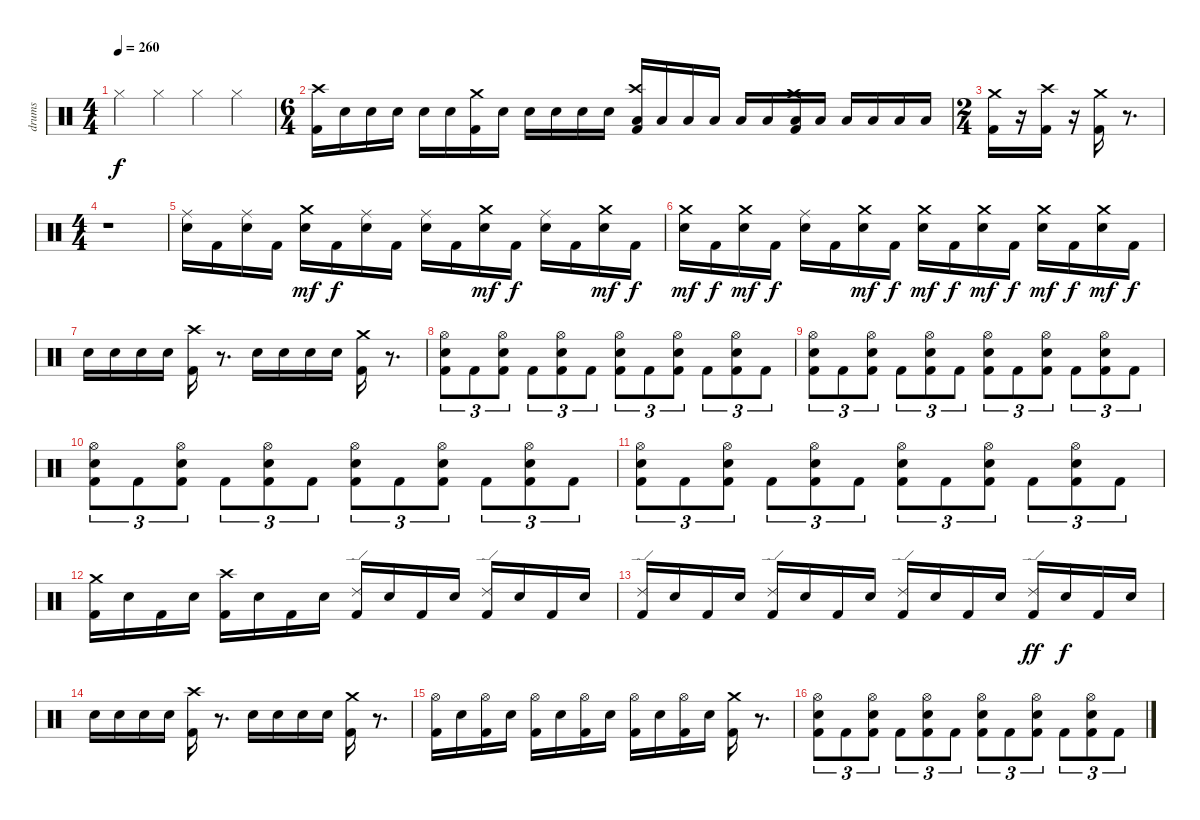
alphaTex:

\track ("drums" "drums") {instrument percussion}
\staff {score}
\articulation defaults
\ts (4 4)
\tempo 260
\clef neutral
\ks c "Hi-Hat (closed)".4{dy f} "Hi-Hat (closed)".4 "Hi-Hat (closed)".4 "Hi-Hat (closed)".4
|
\ts (6 4)
("Kick (hit) 2" "Crash high (hit)").16 "Snare (hit) 2".16 "Snare (hit) 2".16 "Snare (hit) 2".16 "Snare (hit) 2".16 "Snare (hit) 2".16 ("Kick (hit) 2" "Crash medium (hit)").16 "Snare (hit) 2".16 "Snare (hit) 2".16 "Snare (hit) 2".16 "Snare (hit) 2".16 "Snare (hit) 2".16 ("Kick (hit) 2" "Low Tom (hit)" "Crash high (hit)").16 "Low Tom (hit)".16 "Low Tom (hit)".16 "Low Tom (hit)".16 "Low Tom (hit)".16 "Low Tom (hit)".16 ("Kick (hit) 2" "Low Floor Tom (hit)" "Crash medium (hit)").16 "Low Floor Tom (hit)".16 "Low Floor Tom (hit)".16 "Low Floor Tom (hit)".16 "Low Floor Tom (hit)".16 "Low Floor Tom (hit)".16 |
\ts (2 4)
("Kick (hit) 2" "Crash medium (hit)").16 r.16 ("Kick (hit) 2" "Crash high (hit)").16 r.16 ("Kick (hit) 2" "Crash medium (hit)").16 r.8{d} |
\ts (4 4)
r.1 |
("Snare (hit) 2" "Ride (middle)").16 "Kick (hit) 2".16 ("Snare (hit) 2" "Ride (middle)").16 "Kick (hit) 2".16 ("Snare (hit) 2" "Crash medium (hit)").16{dy mf} "Kick (hit) 2".16{dy f} ("Snare (hit) 2" "Ride (middle)").16 "Kick (hit) 2".16 ("Snare (hit) 2" "Ride (middle)").16 "Kick (hit) 2".16 ("Snare (hit) 2" "Crash medium (hit)").16{dy mf} "Kick (hit) 2".16{dy f} ("Snare (hit) 2" "Ride (middle)").16 "Kick (hit) 2".16 ("Snare (hit) 2" "Crash medium (hit)").16{dy mf} "Kick (hit) 2".16{dy f} |
("Snare (hit) 2" "Crash medium (hit)").16{dy mf} "Kick (hit) 2".16{dy f} ("Snare (hit) 2" "Crash medium (hit)").16{dy mf} "Kick (hit) 2".16{dy f} ("Snare (hit) 2" "Ride (middle)").16 "Kick (hit) 2".16 ("Snare (hit) 2" "Crash medium (hit)").16{dy mf} "Kick (hit) 2".16{dy f} ("Snare (hit) 2" "Crash medium (hit)").16{dy mf} "Kick (hit) 2".16{dy f} ("Snare (hit) 2" "Crash medium (hit)").16{dy mf} "Kick (hit) 2".16{dy f} ("Snare (hit) 2" "Crash medium (hit)").16{dy mf} "Kick (hit) 2".16{dy f} ("Snare (hit) 2" "Crash medium (hit)").16{dy mf} "Kick (hit) 2".16{dy f} |
"Snare (hit) 2".16 "Snare (hit) 2".16 "Snare (hit) 2".16 "Snare (hit) 2".16 ("Kick (hit) 2" "Crash high (hit)").16 r.8{d} "Snare (hit) 2".16 "Snare (hit) 2".16 "Snare (hit) 2".16 "Snare (hit) 2".16 ("Kick (hit) 2" "Crash medium (hit)").16 r.8{d} |
("Kick (hit) 2" "Snare (hit) 2" "Hi-Hat (open)").8{tu (3 2)} "Kick (hit) 2".8{tu (3 2)} ("Kick (hit) 2" "Snare (hit) 2" "Hi-Hat (open)").8{tu (3 2)} "Kick (hit) 2".8{tu (3 2)} ("Kick (hit) 2" "Snare (hit) 2" "Hi-Hat (open)").8{tu (3 2)} "Kick (hit) 2".8{tu (3 2)} ("Kick (hit) 2" "Snare (hit) 2" "Hi-Hat (open)").8{tu (3 2)} "Kick (hit) 2".8{tu (3 2)} ("Kick (hit) 2" "Snare (hit) 2" "Hi-Hat (open)").8{tu (3 2)} "Kick (hit) 2".8{tu (3 2)} ("Kick (hit) 2" "Snare (hit) 2" "Hi-Hat (open)").8{tu (3 2)} "Kick (hit) 2".8{tu (3 2)} |
("Kick (hit) 2" "Snare (hit) 2" "Hi-Hat (open)").8{tu (3 2)} "Kick (hit) 2".8{tu (3 2)} ("Kick (hit) 2" "Snare (hit) 2" "Hi-Hat (open)").8{tu (3 2)} "Kick (hit) 2".8{tu (3 2)} ("Kick (hit) 2" "Snare (hit) 2" "Hi-Hat (open)").8{tu (3 2)} "Kick (hit) 2".8{tu (3 2)} ("Kick (hit) 2" "Snare (hit) 2" "Hi-Hat (open)").8{tu (3 2)} "Kick (hit) 2".8{tu (3 2)} ("Kick (hit) 2" "Snare (hit) 2" "Hi-Hat (open)").8{tu (3 2)} "Kick (hit) 2".8{tu (3 2)} ("Kick (hit) 2" "Snare (hit) 2" "Hi-Hat (open)").8{tu (3 2)} "Kick (hit) 2".8{tu (3 2)} |
("Kick (hit) 2" "Snare (hit) 2" "Hi-Hat (open)").8{tu (3 2)} "Kick (hit) 2".8{tu (3 2)} ("Kick (hit) 2" "Snare (hit) 2" "Hi-Hat (open)").8{tu (3 2)} "Kick (hit) 2".8{tu (3 2)} ("Kick (hit) 2" "Snare (hit) 2" "Hi-Hat (open)").8{tu (3 2)} "Kick (hit) 2".8{tu (3 2)} ("Kick (hit) 2" "Snare (hit) 2" "Hi-Hat (open)").8{tu (3 2)} "Kick (hit) 2".8{tu (3 2)} ("Kick (hit) 2" "Snare (hit) 2" "Hi-Hat (open)").8{tu (3 2)} "Kick (hit) 2".8{tu (3 2)} ("Kick (hit) 2" "Snare (hit) 2" "Hi-Hat (open)").8{tu (3 2)} "Kick (hit) 2".8{tu (3 2)} |
("Kick (hit) 2" "Snare (hit) 2" "Hi-Hat (open)").8{tu (3 2)} "Kick (hit) 2".8{tu (3 2)} ("Kick (hit) 2" "Snare (hit) 2" "Hi-Hat (open)").8{tu (3 2)} "Kick (hit) 2".8{tu (3 2)} ("Kick (hit) 2" "Snare (hit) 2" "Hi-Hat (open)").8{tu (3 2)} "Kick (hit) 2".8{tu (3 2)} ("Kick (hit) 2" "Snare (hit) 2" "Hi-Hat (open)").8{tu (3 2)} "Kick (hit) 2".8{tu (3 2)} ("Kick (hit) 2" "Snare (hit) 2" "Hi-Hat (open)").8{tu (3 2)} "Kick (hit) 2".8{tu (3 2)} ("Kick (hit) 2" "Snare (hit) 2" "Hi-Hat (open)").8{tu (3 2)} "Kick (hit) 2".8{tu (3 2)} |
("Kick (hit) 2" "Crash medium (hit)").16 "Snare (hit) 2".16 "Kick (hit) 2".16 "Snare (hit) 2".16 ("Kick (hit) 2" "Crash high (hit)").16 "Snare (hit) 2".16 "Kick (hit) 2".16 "Snare (hit) 2".16 ("Kick (hit) 2" "Ride (edge) 2").16 "Snare (hit) 2".16 "Kick (hit) 2".16 "Snare (hit) 2".16 ("Kick (hit) 2" "Ride (edge) 2").16 "Snare (hit) 2".16 "Kick (hit) 2".16 "Snare (hit) 2".16 |
("Kick (hit) 2" "Ride (edge) 2").16 "Snare (hit) 2".16 "Kick (hit) 2".16 "Snare (hit) 2".16 ("Kick (hit) 2" "Ride (edge) 2").16 "Snare (hit) 2".16 "Kick (hit) 2".16 "Snare (hit) 2".16 ("Kick (hit) 2" "Ride (edge) 2").16 "Snare (hit) 2".16 "Kick (hit) 2".16 "Snare (hit) 2".16 ("Kick (hit) 2" "Ride (edge) 2").16{dy ff} "Snare (hit) 2".16{dy f} "Kick (hit) 2".16 "Snare (hit) 2".16 |
"Snare (hit) 2".16 "Snare (hit) 2".16 "Snare (hit) 2".16 "Snare (hit) 2".16 ("Kick (hit) 2" "Crash high (hit)").16 r.8{d} "Snare (hit) 2".16 "Snare (hit) 2".16 "Snare (hit) 2".16 "Snare (hit) 2".16 ("Kick (hit) 2" "Crash medium (hit)").16 r.8{d} |
("Kick (hit) 2" "Hi-Hat (open)").16 "Snare (hit) 2".16 ("Kick (hit) 2" "Hi-Hat (open)").16 "Snare (hit) 2".16 ("Kick (hit) 2" "Hi-Hat (open)").16 "Snare (hit) 2".16 ("Kick (hit) 2" "Hi-Hat (open)").16 "Snare (hit) 2".16 ("Kick (hit) 2" "Hi-Hat (open)").16 "Snare (hit) 2".16 ("Kick (hit) 2" "Hi-Hat (open)").16 "Snare (hit) 2".16 ("Kick (hit) 2" "Crash medium (hit)").16 r.8{d} |
("Kick (hit) 2" "Snare (hit) 2" "Hi-Hat (open)").8{tu (3 2)} "Kick (hit) 2".8{tu (3 2)} ("Kick (hit) 2" "Snare (hit) 2" "Hi-Hat (open)").8{tu (3 2)} "Kick (hit) 2".8{tu (3 2)} ("Kick (hit) 2" "Snare (hit) 2" "Hi-Hat (open)").8{tu (3 2)} "Kick (hit) 2".8{tu (3 2)} ("Kick (hit) 2" "Snare (hit) 2" "Hi-Hat (open)").8{tu (3 2)} "Kick (hit) 2".8{tu (3 2)} ("Kick (hit) 2" "Snare (hit) 2" "Hi-Hat (open)").8{tu (3 2)} "Kick (hit) 2".8{tu (3 2)} ("Kick (hit) 2" "Snare (hit) 2" "Hi-Hat (open)").8{tu (3 2)} "Kick (hit) 2".8{tu (3 2)}
